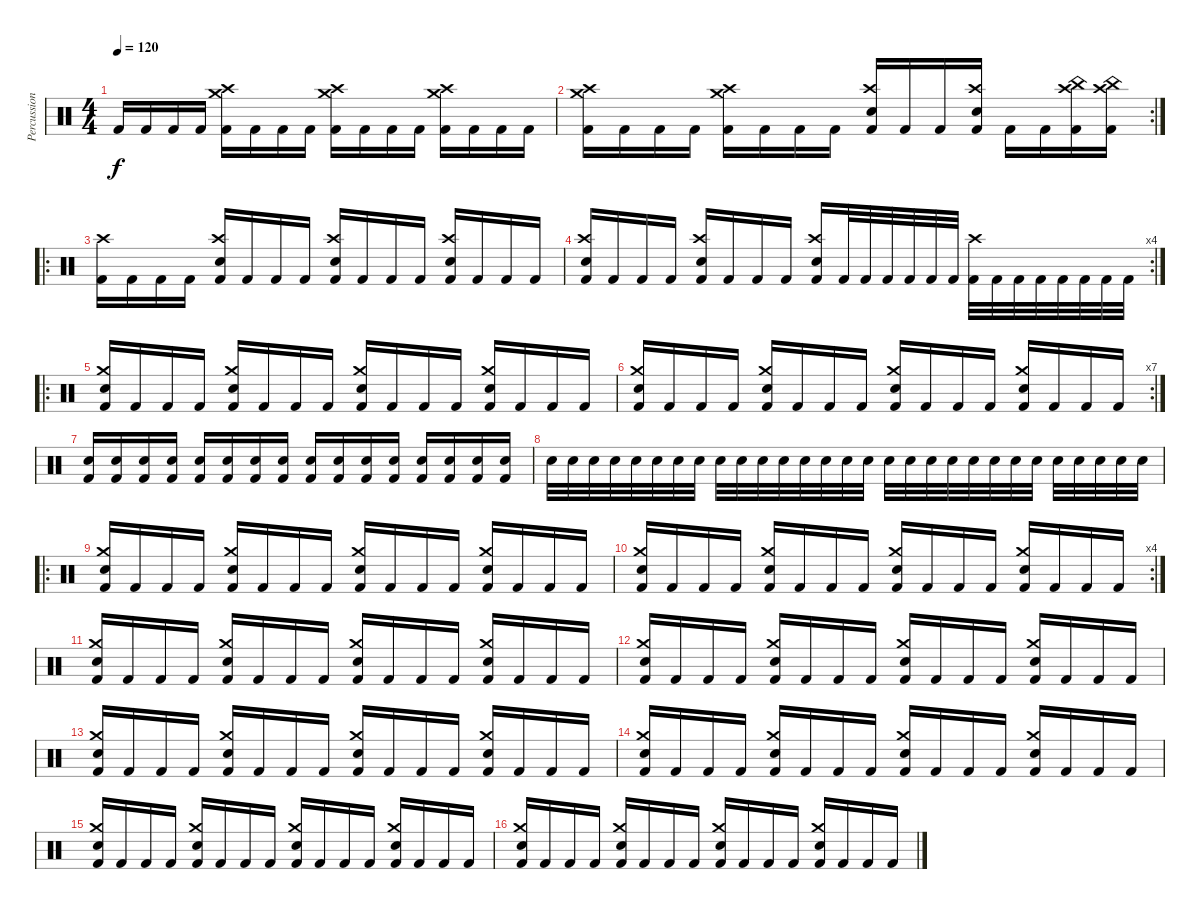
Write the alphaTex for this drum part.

\track ("Percussion" "Percussion") {instrument percussion}
\staff {score}
\articulation defaults
\ts (4 4)
\tempo 120
\clef neutral
\ks c "Kick (hit) 2".16{dy f} "Kick (hit) 2".16 "Kick (hit) 2".16 "Kick (hit) 2".16
("Crash medium (hit)" "Crash high (hit)" "Kick (hit) 2").16 "Kick (hit) 2".16 "Kick (hit) 2".16 "Kick (hit) 2".16 ("Crash high (hit)" "Crash medium (hit)" "Kick (hit) 2").16 "Kick (hit) 2".16 "Kick (hit) 2".16 "Kick (hit) 2".16 ("Crash medium (hit)" "Crash high (hit)" "Kick (hit) 2").16 "Kick (hit) 2".16 "Kick (hit) 2".16 "Kick (hit) 2".16 |
\rc 2
("Crash high (hit)" "Crash medium (hit)" "Kick (hit) 2").16 "Kick (hit) 2".16 "Kick (hit) 2".16 "Kick (hit) 2".16 ("Crash medium (hit)" "Crash high (hit)" "Kick (hit) 2").16 "Kick (hit) 2".16 "Kick (hit) 2".16 "Kick (hit) 2".16 ("Electric Snare (hit)" "Crash high (hit)" "Kick (hit) 2").16 "Kick (hit) 2".16 "Kick (hit) 2".16 ("Crash high (hit)" "Electric Snare (hit)" "Kick (hit) 2").16 "Kick (hit) 2".16 "Kick (hit) 2".16 ("Crash high (hit)" "China (hit)" "Kick (hit) 2").16 ("Crash high (hit)" "China (hit)" "Kick (hit) 2").16 |
\ro
("Crash high (hit)" "Kick (hit) 2").16 "Kick (hit) 2".16 "Kick (hit) 2".16 "Kick (hit) 2".16 ("Electric Snare (hit)" "Crash high (hit)" "Kick (hit) 2").16 "Kick (hit) 2".16 "Kick (hit) 2".16 "Kick (hit) 2".16 ("Electric Snare (hit)" "Crash high (hit)" "Kick (hit) 2").16 "Kick (hit) 2".16 "Kick (hit) 2".16 "Kick (hit) 2".16 ("Electric Snare (hit)" "Crash high (hit)" "Kick (hit) 2").16 "Kick (hit) 2".16 "Kick (hit) 2".16 "Kick (hit) 2".16 |
\rc 4
("Electric Snare (hit)" "Crash high (hit)" "Kick (hit) 2").16 "Kick (hit) 2".16 "Kick (hit) 2".16 "Kick (hit) 2".16 ("Electric Snare (hit)" "Crash high (hit)" "Kick (hit) 2").16 "Kick (hit) 2".16 "Kick (hit) 2".16 "Kick (hit) 2".16 ("Electric Snare (hit)" "Crash high (hit)" "Kick (hit) 2").16 "Kick (hit) 2".32 "Kick (hit) 2".32 "Kick (hit) 2".32 "Kick (hit) 2".32 "Kick (hit) 2".32 "Kick (hit) 2".32 ("Crash high (hit)" "Kick (hit) 2").32 "Kick (hit) 2".32 "Kick (hit) 2".32 "Kick (hit) 2".32 "Kick (hit) 2".32 "Kick (hit) 2".32 "Kick (hit) 2".32 "Kick (hit) 2".32 |
\ro
("Electric Snare (hit)" "Crash medium (hit)" "Kick (hit) 2").16 "Kick (hit) 2".16 "Kick (hit) 2".16 "Kick (hit) 2".16 ("Electric Snare (hit)" "Crash medium (hit)" "Kick (hit) 2").16 "Kick (hit) 2".16 "Kick (hit) 2".16 "Kick (hit) 2".16 ("Electric Snare (hit)" "Crash medium (hit)" "Kick (hit) 2").16 "Kick (hit) 2".16 "Kick (hit) 2".16 "Kick (hit) 2".16 ("Electric Snare (hit)" "Crash medium (hit)" "Kick (hit) 2").16 "Kick (hit) 2".16 "Kick (hit) 2".16 "Kick (hit) 2".16 |
\rc 7
("Electric Snare (hit)" "Crash medium (hit)" "Kick (hit) 2").16 "Kick (hit) 2".16 "Kick (hit) 2".16 "Kick (hit) 2".16 ("Electric Snare (hit)" "Crash medium (hit)" "Kick (hit) 2").16 "Kick (hit) 2".16 "Kick (hit) 2".16 "Kick (hit) 2".16 ("Electric Snare (hit)" "Crash medium (hit)" "Kick (hit) 2").16 "Kick (hit) 2".16 "Kick (hit) 2".16 "Kick (hit) 2".16 ("Electric Snare (hit)" "Crash medium (hit)" "Kick (hit) 2").16 "Kick (hit) 2".16 "Kick (hit) 2".16 "Kick (hit) 2".16 |
("Electric Snare (hit)" "Kick (hit) 2").16 ("Electric Snare (hit)" "Kick (hit) 2").16 ("Electric Snare (hit)" "Kick (hit) 2").16 ("Electric Snare (hit)" "Kick (hit) 2").16 ("Electric Snare (hit)" "Kick (hit) 2").16 ("Electric Snare (hit)" "Kick (hit) 2").16 ("Electric Snare (hit)" "Kick (hit) 2").16 ("Electric Snare (hit)" "Kick (hit) 2").16 ("Electric Snare (hit)" "Kick (hit) 2").16 ("Electric Snare (hit)" "Kick (hit) 2").16 ("Electric Snare (hit)" "Kick (hit) 2").16 ("Electric Snare (hit)" "Kick (hit) 2").16 ("Electric Snare (hit)" "Kick (hit) 2").16 ("Electric Snare (hit)" "Kick (hit) 2").16 ("Electric Snare (hit)" "Kick (hit) 2").16 ("Electric Snare (hit)" "Kick (hit) 2").16 |
"Electric Snare (hit)".32 "Electric Snare (hit)".32 "Electric Snare (hit)".32 "Electric Snare (hit)".32 "Electric Snare (hit)".32 "Electric Snare (hit)".32 "Electric Snare (hit)".32 "Electric Snare (hit)".32 "Electric Snare (hit)".32 "Electric Snare (hit)".32 "Electric Snare (hit)".32 "Electric Snare (hit)".32 "Electric Snare (hit)".32 "Electric Snare (hit)".32 "Electric Snare (hit)".32 "Electric Snare (hit)".32 "Electric Snare (hit)".32 "Electric Snare (hit)".32 "Electric Snare (hit)".32 "Electric Snare (hit)".32 "Electric Snare (hit)".32 "Electric Snare (hit)".32 "Electric Snare (hit)".32 "Electric Snare (hit)".32 "Electric Snare (hit)".32 "Electric Snare (hit)".32 "Electric Snare (hit)".32 "Electric Snare (hit)".32 "Electric Snare (hit)".32 |
\ro
("Electric Snare (hit)" "Crash medium (hit)" "Kick (hit) 2").16 "Kick (hit) 2".16 "Kick (hit) 2".16 "Kick (hit) 2".16 ("Electric Snare (hit)" "Crash medium (hit)" "Kick (hit) 2").16 "Kick (hit) 2".16 "Kick (hit) 2".16 "Kick (hit) 2".16 ("Electric Snare (hit)" "Crash medium (hit)" "Kick (hit) 2").16 "Kick (hit) 2".16 "Kick (hit) 2".16 "Kick (hit) 2".16 ("Electric Snare (hit)" "Crash medium (hit)" "Kick (hit) 2").16 "Kick (hit) 2".16 "Kick (hit) 2".16 "Kick (hit) 2".16 |
\rc 4
("Electric Snare (hit)" "Crash medium (hit)" "Kick (hit) 2").16 "Kick (hit) 2".16 "Kick (hit) 2".16 "Kick (hit) 2".16 ("Electric Snare (hit)" "Crash medium (hit)" "Kick (hit) 2").16 "Kick (hit) 2".16 "Kick (hit) 2".16 "Kick (hit) 2".16 ("Electric Snare (hit)" "Crash medium (hit)" "Kick (hit) 2").16 "Kick (hit) 2".16 "Kick (hit) 2".16 "Kick (hit) 2".16 ("Electric Snare (hit)" "Crash medium (hit)" "Kick (hit) 2").16 "Kick (hit) 2".16 "Kick (hit) 2".16 "Kick (hit) 2".16 |
("Electric Snare (hit)" "Crash medium (hit)" "Kick (hit) 2").16 "Kick (hit) 2".16 "Kick (hit) 2".16 "Kick (hit) 2".16 ("Electric Snare (hit)" "Crash medium (hit)" "Kick (hit) 2").16 "Kick (hit) 2".16 "Kick (hit) 2".16 "Kick (hit) 2".16 ("Electric Snare (hit)" "Crash medium (hit)" "Kick (hit) 2").16 "Kick (hit) 2".16 "Kick (hit) 2".16 "Kick (hit) 2".16 ("Electric Snare (hit)" "Crash medium (hit)" "Kick (hit) 2").16 "Kick (hit) 2".16 "Kick (hit) 2".16 "Kick (hit) 2".16 |
("Electric Snare (hit)" "Crash medium (hit)" "Kick (hit) 2").16 "Kick (hit) 2".16 "Kick (hit) 2".16 "Kick (hit) 2".16 ("Electric Snare (hit)" "Crash medium (hit)" "Kick (hit) 2").16 "Kick (hit) 2".16 "Kick (hit) 2".16 "Kick (hit) 2".16 ("Electric Snare (hit)" "Crash medium (hit)" "Kick (hit) 2").16 "Kick (hit) 2".16 "Kick (hit) 2".16 "Kick (hit) 2".16 ("Electric Snare (hit)" "Crash medium (hit)" "Kick (hit) 2").16 "Kick (hit) 2".16 "Kick (hit) 2".16 "Kick (hit) 2".16 |
("Electric Snare (hit)" "Crash medium (hit)" "Kick (hit) 2").16 "Kick (hit) 2".16 "Kick (hit) 2".16 "Kick (hit) 2".16 ("Electric Snare (hit)" "Crash medium (hit)" "Kick (hit) 2").16 "Kick (hit) 2".16 "Kick (hit) 2".16 "Kick (hit) 2".16 ("Electric Snare (hit)" "Crash medium (hit)" "Kick (hit) 2").16 "Kick (hit) 2".16 "Kick (hit) 2".16 "Kick (hit) 2".16 ("Electric Snare (hit)" "Crash medium (hit)" "Kick (hit) 2").16 "Kick (hit) 2".16 "Kick (hit) 2".16 "Kick (hit) 2".16 |
("Electric Snare (hit)" "Crash medium (hit)" "Kick (hit) 2").16 "Kick (hit) 2".16 "Kick (hit) 2".16 "Kick (hit) 2".16 ("Electric Snare (hit)" "Crash medium (hit)" "Kick (hit) 2").16 "Kick (hit) 2".16 "Kick (hit) 2".16 "Kick (hit) 2".16 ("Electric Snare (hit)" "Crash medium (hit)" "Kick (hit) 2").16 "Kick (hit) 2".16 "Kick (hit) 2".16 "Kick (hit) 2".16 ("Electric Snare (hit)" "Crash medium (hit)" "Kick (hit) 2").16 "Kick (hit) 2".16 "Kick (hit) 2".16 "Kick (hit) 2".16 |
("Electric Snare (hit)" "Crash medium (hit)" "Kick (hit) 2").16 "Kick (hit) 2".16 "Kick (hit) 2".16 "Kick (hit) 2".16 ("Electric Snare (hit)" "Crash medium (hit)" "Kick (hit) 2").16 "Kick (hit) 2".16 "Kick (hit) 2".16 "Kick (hit) 2".16 ("Electric Snare (hit)" "Crash medium (hit)" "Kick (hit) 2").16 "Kick (hit) 2".16 "Kick (hit) 2".16 "Kick (hit) 2".16 ("Electric Snare (hit)" "Crash medium (hit)" "Kick (hit) 2").16 "Kick (hit) 2".16 "Kick (hit) 2".16 "Kick (hit) 2".16 |
("Electric Snare (hit)" "Crash medium (hit)" "Kick (hit) 2").16 "Kick (hit) 2".16 "Kick (hit) 2".16 "Kick (hit) 2".16 ("Electric Snare (hit)" "Crash medium (hit)" "Kick (hit) 2").16 "Kick (hit) 2".16 "Kick (hit) 2".16 "Kick (hit) 2".16 ("Electric Snare (hit)" "Crash medium (hit)" "Kick (hit) 2").16 "Kick (hit) 2".16 "Kick (hit) 2".16 "Kick (hit) 2".16 ("Electric Snare (hit)" "Crash medium (hit)" "Kick (hit) 2").16 "Kick (hit) 2".16 "Kick (hit) 2".16 "Kick (hit) 2".16
